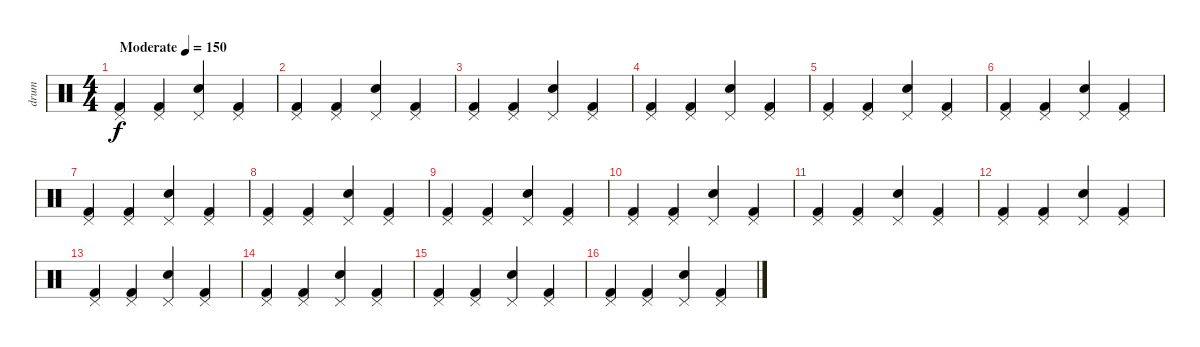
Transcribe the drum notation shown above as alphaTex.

\track ("drum" "drum") {instrument percussion}
\staff {score}
\articulation defaults
\ts (4 4)
\section ("" "")
\tempo (150 "Moderate")
\clef neutral
\ks c
("Pedal Hi-Hat (hit)" "Kick (hit) 2").4{dy f} ("Pedal Hi-Hat (hit)" "Kick (hit) 2").4 ("Pedal Hi-Hat (hit)" "Electric Snare (hit)").4 ("Pedal Hi-Hat (hit)" "Kick (hit) 2").4 |
("Pedal Hi-Hat (hit)" "Kick (hit) 2").4 ("Pedal Hi-Hat (hit)" "Kick (hit) 2").4 ("Pedal Hi-Hat (hit)" "Electric Snare (hit)").4 ("Pedal Hi-Hat (hit)" "Kick (hit) 2").4 |
("Pedal Hi-Hat (hit)" "Kick (hit) 2").4 ("Pedal Hi-Hat (hit)" "Kick (hit) 2").4 ("Pedal Hi-Hat (hit)" "Electric Snare (hit)").4 ("Pedal Hi-Hat (hit)" "Kick (hit) 2").4 |
("Pedal Hi-Hat (hit)" "Kick (hit) 2").4 ("Pedal Hi-Hat (hit)" "Kick (hit) 2").4 ("Pedal Hi-Hat (hit)" "Electric Snare (hit)").4 ("Pedal Hi-Hat (hit)" "Kick (hit) 2").4 |
("Pedal Hi-Hat (hit)" "Kick (hit) 2").4 ("Pedal Hi-Hat (hit)" "Kick (hit) 2").4 ("Pedal Hi-Hat (hit)" "Electric Snare (hit)").4 ("Pedal Hi-Hat (hit)" "Kick (hit) 2").4 |
("Pedal Hi-Hat (hit)" "Kick (hit) 2").4 ("Pedal Hi-Hat (hit)" "Kick (hit) 2").4 ("Pedal Hi-Hat (hit)" "Electric Snare (hit)").4 ("Pedal Hi-Hat (hit)" "Kick (hit) 2").4 |
("Pedal Hi-Hat (hit)" "Kick (hit) 2").4 ("Pedal Hi-Hat (hit)" "Kick (hit) 2").4 ("Pedal Hi-Hat (hit)" "Electric Snare (hit)").4 ("Pedal Hi-Hat (hit)" "Kick (hit) 2").4 |
("Pedal Hi-Hat (hit)" "Kick (hit) 2").4 ("Pedal Hi-Hat (hit)" "Kick (hit) 2").4 ("Pedal Hi-Hat (hit)" "Electric Snare (hit)").4 ("Pedal Hi-Hat (hit)" "Kick (hit) 2").4 |
("Pedal Hi-Hat (hit)" "Kick (hit) 2").4 ("Pedal Hi-Hat (hit)" "Kick (hit) 2").4 ("Pedal Hi-Hat (hit)" "Electric Snare (hit)").4 ("Pedal Hi-Hat (hit)" "Kick (hit) 2").4 |
("Pedal Hi-Hat (hit)" "Kick (hit) 2").4 ("Pedal Hi-Hat (hit)" "Kick (hit) 2").4 ("Pedal Hi-Hat (hit)" "Electric Snare (hit)").4 ("Pedal Hi-Hat (hit)" "Kick (hit) 2").4 |
("Pedal Hi-Hat (hit)" "Kick (hit) 2").4 ("Pedal Hi-Hat (hit)" "Kick (hit) 2").4 ("Pedal Hi-Hat (hit)" "Electric Snare (hit)").4 ("Pedal Hi-Hat (hit)" "Kick (hit) 2").4 |
("Pedal Hi-Hat (hit)" "Kick (hit) 2").4 ("Pedal Hi-Hat (hit)" "Kick (hit) 2").4 ("Pedal Hi-Hat (hit)" "Electric Snare (hit)").4 ("Pedal Hi-Hat (hit)" "Kick (hit) 2").4 |
("Pedal Hi-Hat (hit)" "Kick (hit) 2").4 ("Pedal Hi-Hat (hit)" "Kick (hit) 2").4 ("Pedal Hi-Hat (hit)" "Electric Snare (hit)").4 ("Pedal Hi-Hat (hit)" "Kick (hit) 2").4 |
("Pedal Hi-Hat (hit)" "Kick (hit) 2").4 ("Pedal Hi-Hat (hit)" "Kick (hit) 2").4 ("Pedal Hi-Hat (hit)" "Electric Snare (hit)").4 ("Pedal Hi-Hat (hit)" "Kick (hit) 2").4 |
("Pedal Hi-Hat (hit)" "Kick (hit) 2").4 ("Pedal Hi-Hat (hit)" "Kick (hit) 2").4 ("Pedal Hi-Hat (hit)" "Electric Snare (hit)").4 ("Pedal Hi-Hat (hit)" "Kick (hit) 2").4 |
("Pedal Hi-Hat (hit)" "Kick (hit) 2").4 ("Pedal Hi-Hat (hit)" "Kick (hit) 2").4 ("Pedal Hi-Hat (hit)" "Electric Snare (hit)").4 ("Pedal Hi-Hat (hit)" "Kick (hit) 2").4
